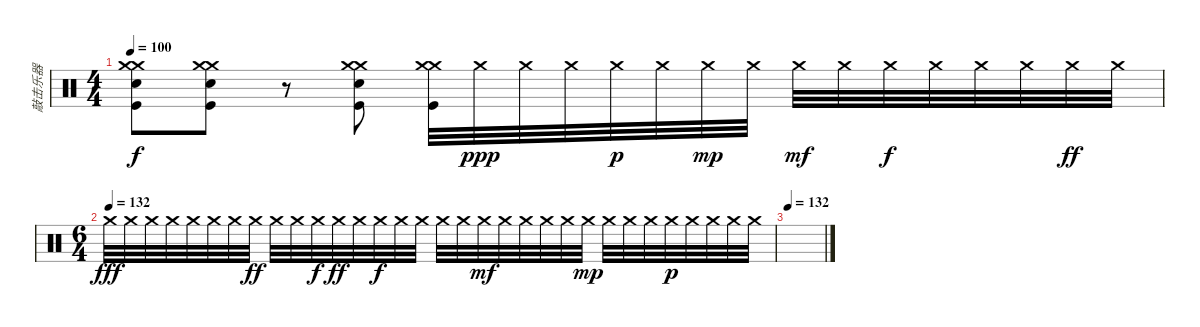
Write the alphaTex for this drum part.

\track ("敲击乐器" "敲击乐器") {instrument percussion}
\staff {score}
\articulation defaults
\ts (4 4)
\tempo 100
\clef neutral
\ks c
("Crash medium (hit)" "Crash medium (hit)" "Snare (hit) 2" "Kick (hit)").8{dy f} ("Crash medium (hit)" "Crash medium (hit)" "Snare (hit) 2" "Kick (hit)").8 r.8 ("Crash medium (hit)" "Crash medium (hit)" "Snare (hit) 2" "Kick (hit)").8 ("Crash medium (hit)" "Crash medium (hit)" "Kick (hit)").32 "Crash medium (hit)".32{dy ppp} "Crash medium (hit)".32 "Crash medium (hit)".32 "Crash medium (hit)".32{dy p} "Crash medium (hit)".32 "Crash medium (hit)".32{dy mp} "Crash medium (hit)".32 "Crash medium (hit)".32{dy mf} "Crash medium (hit)".32 "Crash medium (hit)".32{dy f} "Crash medium (hit)".32 "Crash medium (hit)".32 "Crash medium (hit)".32 "Crash medium (hit)".32{dy ff} "Crash medium (hit)".32 |
\ts (6 4)
\tempo (132)
"Crash medium (hit)".32{dy fff} "Crash medium (hit)".32 "Crash medium (hit)".32 "Crash medium (hit)".32 "Crash medium (hit)".32 "Crash medium (hit)".32 "Crash medium (hit)".32 "Crash medium (hit)".32{dy ff} "Crash medium (hit)".32 "Crash medium (hit)".32 "Crash medium (hit)".32{dy f} "Crash medium (hit)".32{dy ff} "Crash medium (hit)".32 "Crash medium (hit)".32{dy f} "Crash medium (hit)".32 "Crash medium (hit)".32 "Crash medium (hit)".32 "Crash medium (hit)".32 "Crash medium (hit)".32{dy mf} "Crash medium (hit)".32 "Crash medium (hit)".32 "Crash medium (hit)".32 "Crash medium (hit)".32 "Crash medium (hit)".32{dy mp} "Crash medium (hit)".32 "Crash medium (hit)".32 "Crash medium (hit)".32 "Crash medium (hit)".32{dy p} "Crash medium (hit)".32 "Crash medium (hit)".32 "Crash medium (hit)".32 "Crash medium (hit)".32 |
\tempo 132
